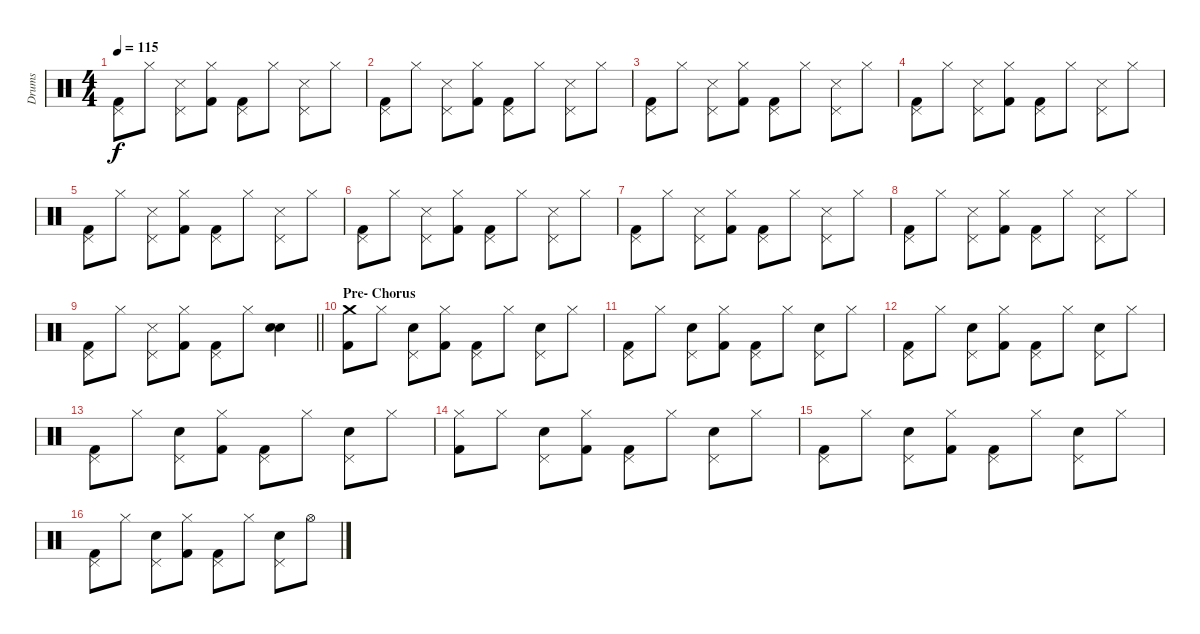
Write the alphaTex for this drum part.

\track ("Drums" "Drums") {instrument percussion}
\staff {score}
\articulation defaults
\ts (4 4)
\tempo 115
\clef neutral
\ks c
("Pedal Hi-Hat (hit)" "Kick (hit) 2").8{dy f} "Hi-Hat (closed)".8 ("Pedal Hi-Hat (hit)" "Snare (side stick) 3").8 ("Hi-Hat (closed)" "Kick (hit) 2").8 ("Pedal Hi-Hat (hit)" "Kick (hit) 2").8 "Hi-Hat (closed)".8 ("Pedal Hi-Hat (hit)" "Snare (side stick) 3").8 "Hi-Hat (closed)".8 |
("Pedal Hi-Hat (hit)" "Kick (hit) 2").8 "Hi-Hat (closed)".8 ("Pedal Hi-Hat (hit)" "Snare (side stick) 3").8 ("Hi-Hat (closed)" "Kick (hit) 2").8 ("Pedal Hi-Hat (hit)" "Kick (hit) 2").8 "Hi-Hat (closed)".8 ("Pedal Hi-Hat (hit)" "Snare (side stick) 3").8 "Hi-Hat (closed)".8 |
("Pedal Hi-Hat (hit)" "Kick (hit) 2").8 "Hi-Hat (closed)".8 ("Pedal Hi-Hat (hit)" "Snare (side stick) 3").8 ("Hi-Hat (closed)" "Kick (hit) 2").8 ("Pedal Hi-Hat (hit)" "Kick (hit) 2").8 "Hi-Hat (closed)".8 ("Pedal Hi-Hat (hit)" "Snare (side stick) 3").8 "Hi-Hat (closed)".8 |
("Pedal Hi-Hat (hit)" "Kick (hit) 2").8 "Hi-Hat (closed)".8 ("Pedal Hi-Hat (hit)" "Snare (side stick) 3").8 ("Hi-Hat (closed)" "Kick (hit) 2").8 ("Pedal Hi-Hat (hit)" "Kick (hit) 2").8 "Hi-Hat (closed)".8 ("Pedal Hi-Hat (hit)" "Snare (side stick) 3").8 "Hi-Hat (closed)".8 |
("Pedal Hi-Hat (hit)" "Kick (hit) 2").8 "Hi-Hat (closed)".8 ("Pedal Hi-Hat (hit)" "Snare (side stick) 3").8 ("Hi-Hat (closed)" "Kick (hit) 2").8 ("Pedal Hi-Hat (hit)" "Kick (hit) 2").8 "Hi-Hat (closed)".8 ("Pedal Hi-Hat (hit)" "Snare (side stick) 3").8 "Hi-Hat (closed)".8 |
("Pedal Hi-Hat (hit)" "Kick (hit) 2").8 "Hi-Hat (closed)".8 ("Pedal Hi-Hat (hit)" "Snare (side stick) 3").8 ("Hi-Hat (closed)" "Kick (hit) 2").8 ("Pedal Hi-Hat (hit)" "Kick (hit) 2").8 "Hi-Hat (closed)".8 ("Pedal Hi-Hat (hit)" "Snare (side stick) 3").8 "Hi-Hat (closed)".8 |
("Pedal Hi-Hat (hit)" "Kick (hit) 2").8 "Hi-Hat (closed)".8 ("Pedal Hi-Hat (hit)" "Snare (side stick) 3").8 ("Hi-Hat (closed)" "Kick (hit) 2").8 ("Pedal Hi-Hat (hit)" "Kick (hit) 2").8 "Hi-Hat (closed)".8 ("Pedal Hi-Hat (hit)" "Snare (side stick) 3").8 "Hi-Hat (closed)".8 |
("Pedal Hi-Hat (hit)" "Kick (hit) 2").8 "Hi-Hat (closed)".8 ("Pedal Hi-Hat (hit)" "Snare (side stick) 3").8 ("Hi-Hat (closed)" "Kick (hit) 2").8 ("Pedal Hi-Hat (hit)" "Kick (hit) 2").8 "Hi-Hat (closed)".8 ("Pedal Hi-Hat (hit)" "Snare (side stick) 3").8 "Hi-Hat (closed)".8 |
\barLineRight lightlight
("Pedal Hi-Hat (hit)" "Kick (hit) 2").8 "Hi-Hat (closed)".8 ("Pedal Hi-Hat (hit)" "Snare (side stick) 3").8 ("Hi-Hat (closed)" "Kick (hit) 2").8 ("Pedal Hi-Hat (hit)" "Kick (hit) 2").8 "Hi-Hat (closed)".8 ("Electric Snare (hit)" "Electric Snare (hit)").4{bd 120} |
\section ("" "Pre- Chorus")
("Crash medium (hit)" "Kick (hit) 2").8 "Hi-Hat (closed)".8 ("Pedal Hi-Hat (hit)" "Electric Snare (hit)").8 ("Hi-Hat (closed)" "Kick (hit) 2").8 ("Pedal Hi-Hat (hit)" "Kick (hit) 2").8 "Hi-Hat (closed)".8 ("Pedal Hi-Hat (hit)" "Electric Snare (hit)").8 "Hi-Hat (closed)".8 |
("Pedal Hi-Hat (hit)" "Kick (hit) 2").8 "Hi-Hat (closed)".8 ("Pedal Hi-Hat (hit)" "Electric Snare (hit)").8 ("Hi-Hat (closed)" "Kick (hit) 2").8 ("Pedal Hi-Hat (hit)" "Kick (hit) 2").8 "Hi-Hat (closed)".8 ("Pedal Hi-Hat (hit)" "Electric Snare (hit)").8 "Hi-Hat (closed)".8 |
("Pedal Hi-Hat (hit)" "Kick (hit) 2").8 "Hi-Hat (closed)".8 ("Pedal Hi-Hat (hit)" "Electric Snare (hit)").8 ("Hi-Hat (closed)" "Kick (hit) 2").8 ("Pedal Hi-Hat (hit)" "Kick (hit) 2").8 "Hi-Hat (closed)".8 ("Pedal Hi-Hat (hit)" "Electric Snare (hit)").8 "Hi-Hat (closed)".8 |
("Pedal Hi-Hat (hit)" "Kick (hit) 2").8 "Hi-Hat (closed)".8 ("Pedal Hi-Hat (hit)" "Electric Snare (hit)").8 ("Hi-Hat (closed)" "Kick (hit) 2").8 ("Pedal Hi-Hat (hit)" "Kick (hit) 2").8 "Hi-Hat (closed)".8 ("Pedal Hi-Hat (hit)" "Electric Snare (hit)").8 "Hi-Hat (closed)".8 |
("Hi-Hat (closed)" "Kick (hit) 2").8 "Hi-Hat (closed)".8 ("Pedal Hi-Hat (hit)" "Electric Snare (hit)").8 ("Hi-Hat (closed)" "Kick (hit) 2").8 ("Pedal Hi-Hat (hit)" "Kick (hit) 2").8 "Hi-Hat (closed)".8 ("Pedal Hi-Hat (hit)" "Electric Snare (hit)").8 "Hi-Hat (closed)".8 |
("Pedal Hi-Hat (hit)" "Kick (hit) 2").8 "Hi-Hat (closed)".8 ("Pedal Hi-Hat (hit)" "Electric Snare (hit)").8 ("Hi-Hat (closed)" "Kick (hit) 2").8 ("Pedal Hi-Hat (hit)" "Kick (hit) 2").8 "Hi-Hat (closed)".8 ("Pedal Hi-Hat (hit)" "Electric Snare (hit)").8 "Hi-Hat (closed)".8 |
("Pedal Hi-Hat (hit)" "Kick (hit) 2").8 "Hi-Hat (closed)".8 ("Pedal Hi-Hat (hit)" "Electric Snare (hit)").8 ("Hi-Hat (closed)" "Kick (hit) 2").8 ("Pedal Hi-Hat (hit)" "Kick (hit) 2").8 "Hi-Hat (closed)".8 ("Pedal Hi-Hat (hit)" "Electric Snare (hit)").8 "Hi-Hat (open)".8
